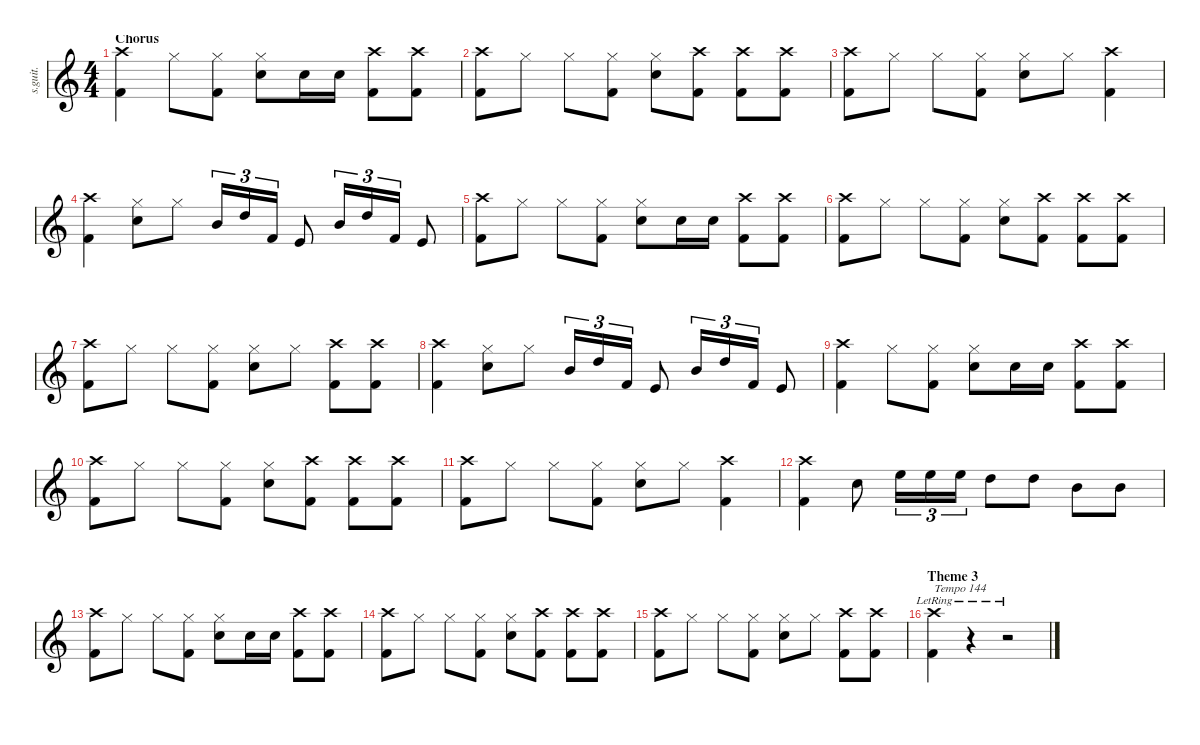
\defaultSystemsLayout 4
\hideDynamics
\bracketExtendMode nobrackets
\track ("Lars Ulrich - Drumzzz" "s.guit.") {instrument percussion}
\staff {score}
\articulation defaults
\ts (4 4)
\section ("" "Chorus")
\tempo (119 hide)
\clef g2
\ks c
("Crash high (hit)" "Kick (hit) 2").4{lyrics (0 "") lyrics (1 "") lyrics (2 "") lyrics (3 "") lyrics (4 "") dy f} "Hi-Hat (closed)".8{lyrics (0 "") lyrics (1 "") lyrics (2 "") lyrics (3 "") lyrics (4 "")} ("Hi-Hat (closed)" "Kick (hit) 2").8{lyrics (0 "") lyrics (1 "") lyrics (2 "") lyrics (3 "") lyrics (4 "")} ("Hi-Hat (closed)" "Snare (hit) 2").8{lyrics (0 "") lyrics (1 "") lyrics (2 "") lyrics (3 "") lyrics (4 "")} "Snare (hit) 2".16{lyrics (0 "") lyrics (1 "") lyrics (2 "") lyrics (3 "") lyrics (4 "")} "Snare (hit) 2".16{lyrics (0 "") lyrics (1 "") lyrics (2 "") lyrics (3 "") lyrics (4 "")} ("Crash high (hit)" "Kick (hit) 2").8{lyrics (0 "") lyrics (1 "") lyrics (2 "") lyrics (3 "") lyrics (4 "")} ("Crash high (hit)" "Kick (hit) 2").8{lyrics (0 "") lyrics (1 "") lyrics (2 "") lyrics (3 "") lyrics (4 "")} |
("Crash high (hit)" "Kick (hit) 2").8{lyrics (0 "") lyrics (1 "") lyrics (2 "") lyrics (3 "") lyrics (4 "")} "Hi-Hat (closed)".8{lyrics (0 "") lyrics (1 "") lyrics (2 "") lyrics (3 "") lyrics (4 "")} "Hi-Hat (closed)".8{lyrics (0 "") lyrics (1 "") lyrics (2 "") lyrics (3 "") lyrics (4 "")} ("Hi-Hat (closed)" "Kick (hit) 2").8{lyrics (0 "") lyrics (1 "") lyrics (2 "") lyrics (3 "") lyrics (4 "")} ("Hi-Hat (closed)" "Snare (hit) 2").8{lyrics (0 "") lyrics (1 "") lyrics (2 "") lyrics (3 "") lyrics (4 "")} ("Crash high (hit)" "Kick (hit) 2").8{lyrics (0 "") lyrics (1 "") lyrics (2 "") lyrics (3 "") lyrics (4 "")} ("Crash high (hit)" "Kick (hit) 2").8{lyrics (0 "") lyrics (1 "") lyrics (2 "") lyrics (3 "") lyrics (4 "")} ("Crash high (hit)" "Kick (hit) 2").8{lyrics (0 "") lyrics (1 "") lyrics (2 "") lyrics (3 "") lyrics (4 "")} |
("Crash high (hit)" "Kick (hit) 2").8{lyrics (0 "") lyrics (1 "") lyrics (2 "") lyrics (3 "") lyrics (4 "")} "Hi-Hat (closed)".8{lyrics (0 "") lyrics (1 "") lyrics (2 "") lyrics (3 "") lyrics (4 "")} "Hi-Hat (closed)".8{lyrics (0 "") lyrics (1 "") lyrics (2 "") lyrics (3 "") lyrics (4 "")} ("Hi-Hat (closed)" "Kick (hit) 2").8{lyrics (0 "") lyrics (1 "") lyrics (2 "") lyrics (3 "") lyrics (4 "")} ("Hi-Hat (closed)" "Snare (hit) 2").8{lyrics (0 "") lyrics (1 "") lyrics (2 "") lyrics (3 "") lyrics (4 "")} "Hi-Hat (closed)".8{lyrics (0 "") lyrics (1 "") lyrics (2 "") lyrics (3 "") lyrics (4 "")} ("Crash high (hit)" "Kick (hit) 2").4{lyrics (0 "") lyrics (1 "") lyrics (2 "") lyrics (3 "") lyrics (4 "")} |
("Crash high (hit)" "Kick (hit) 2").4{lyrics (0 "") lyrics (1 "") lyrics (2 "") lyrics (3 "") lyrics (4 "")} ("Hi-Hat (closed)" "Snare (hit) 2").8{lyrics (0 "") lyrics (1 "") lyrics (2 "") lyrics (3 "") lyrics (4 "")} "Hi-Hat (closed)".8{lyrics (0 "") lyrics (1 "") lyrics (2 "") lyrics (3 "") lyrics (4 "")} "Mid Tom (hit)".16{tu (3 2) lyrics (0 "") lyrics (1 "") lyrics (2 "") lyrics (3 "") lyrics (4 "")} "High Tom (hit)".16{tu (3 2) lyrics (0 "") lyrics (1 "") lyrics (2 "") lyrics (3 "") lyrics (4 "")} "Kick (hit) 2".16{tu (3 2) lyrics (0 "") lyrics (1 "") lyrics (2 "") lyrics (3 "") lyrics (4 "")} "Kick (hit)".8{lyrics (0 "") lyrics (1 "") lyrics (2 "") lyrics (3 "") lyrics (4 "")} "Mid Tom (hit)".16{tu (3 2) lyrics (0 "") lyrics (1 "") lyrics (2 "") lyrics (3 "") lyrics (4 "")} "High Tom (hit)".16{tu (3 2) lyrics (0 "") lyrics (1 "") lyrics (2 "") lyrics (3 "") lyrics (4 "")} "Kick (hit) 2".16{tu (3 2) lyrics (0 "") lyrics (1 "") lyrics (2 "") lyrics (3 "") lyrics (4 "")} "Kick (hit)".8{lyrics (0 "") lyrics (1 "") lyrics (2 "") lyrics (3 "") lyrics (4 "")} |
("Crash high (hit)" "Kick (hit) 2").8{lyrics (0 "") lyrics (1 "") lyrics (2 "") lyrics (3 "") lyrics (4 "")} "Hi-Hat (closed)".8{lyrics (0 "") lyrics (1 "") lyrics (2 "") lyrics (3 "") lyrics (4 "")} "Hi-Hat (closed)".8{lyrics (0 "") lyrics (1 "") lyrics (2 "") lyrics (3 "") lyrics (4 "")} ("Hi-Hat (closed)" "Kick (hit) 2").8{lyrics (0 "") lyrics (1 "") lyrics (2 "") lyrics (3 "") lyrics (4 "")} ("Hi-Hat (closed)" "Snare (hit) 2").8{lyrics (0 "") lyrics (1 "") lyrics (2 "") lyrics (3 "") lyrics (4 "")} "Snare (hit) 2".16{lyrics (0 "") lyrics (1 "") lyrics (2 "") lyrics (3 "") lyrics (4 "")} "Snare (hit) 2".16{lyrics (0 "") lyrics (1 "") lyrics (2 "") lyrics (3 "") lyrics (4 "")} ("Crash high (hit)" "Kick (hit) 2").8{lyrics (0 "") lyrics (1 "") lyrics (2 "") lyrics (3 "") lyrics (4 "")} ("Crash high (hit)" "Kick (hit) 2").8{lyrics (0 "") lyrics (1 "") lyrics (2 "") lyrics (3 "") lyrics (4 "")} |
("Crash high (hit)" "Kick (hit) 2").8{lyrics (0 "") lyrics (1 "") lyrics (2 "") lyrics (3 "") lyrics (4 "")} "Hi-Hat (closed)".8{lyrics (0 "") lyrics (1 "") lyrics (2 "") lyrics (3 "") lyrics (4 "")} "Hi-Hat (closed)".8{lyrics (0 "") lyrics (1 "") lyrics (2 "") lyrics (3 "") lyrics (4 "")} ("Hi-Hat (closed)" "Kick (hit) 2").8{lyrics (0 "") lyrics (1 "") lyrics (2 "") lyrics (3 "") lyrics (4 "")} ("Hi-Hat (closed)" "Snare (hit) 2").8{lyrics (0 "") lyrics (1 "") lyrics (2 "") lyrics (3 "") lyrics (4 "")} ("Crash high (hit)" "Kick (hit) 2").8{lyrics (0 "") lyrics (1 "") lyrics (2 "") lyrics (3 "") lyrics (4 "")} ("Crash high (hit)" "Kick (hit) 2").8{lyrics (0 "") lyrics (1 "") lyrics (2 "") lyrics (3 "") lyrics (4 "")} ("Crash high (hit)" "Kick (hit) 2").8{lyrics (0 "") lyrics (1 "") lyrics (2 "") lyrics (3 "") lyrics (4 "")} |
("Crash high (hit)" "Kick (hit) 2").8{lyrics (0 "") lyrics (1 "") lyrics (2 "") lyrics (3 "") lyrics (4 "")} "Hi-Hat (closed)".8{lyrics (0 "") lyrics (1 "") lyrics (2 "") lyrics (3 "") lyrics (4 "")} "Hi-Hat (closed)".8{lyrics (0 "") lyrics (1 "") lyrics (2 "") lyrics (3 "") lyrics (4 "")} ("Hi-Hat (closed)" "Kick (hit) 2").8{lyrics (0 "") lyrics (1 "") lyrics (2 "") lyrics (3 "") lyrics (4 "")} ("Hi-Hat (closed)" "Snare (hit) 2").8{lyrics (0 "") lyrics (1 "") lyrics (2 "") lyrics (3 "") lyrics (4 "")} "Hi-Hat (closed)".8{lyrics (0 "") lyrics (1 "") lyrics (2 "") lyrics (3 "") lyrics (4 "")} ("Crash high (hit)" "Kick (hit) 2").8{lyrics (0 "") lyrics (1 "") lyrics (2 "") lyrics (3 "") lyrics (4 "")} ("Crash high (hit)" "Kick (hit) 2").8{lyrics (0 "") lyrics (1 "") lyrics (2 "") lyrics (3 "") lyrics (4 "")} |
("Crash high (hit)" "Kick (hit) 2").4{lyrics (0 "") lyrics (1 "") lyrics (2 "") lyrics (3 "") lyrics (4 "")} ("Hi-Hat (closed)" "Snare (hit) 2").8{lyrics (0 "") lyrics (1 "") lyrics (2 "") lyrics (3 "") lyrics (4 "")} "Hi-Hat (closed)".8{lyrics (0 "") lyrics (1 "") lyrics (2 "") lyrics (3 "") lyrics (4 "")} "Mid Tom (hit)".16{tu (3 2) lyrics (0 "") lyrics (1 "") lyrics (2 "") lyrics (3 "") lyrics (4 "")} "High Tom (hit)".16{tu (3 2) lyrics (0 "") lyrics (1 "") lyrics (2 "") lyrics (3 "") lyrics (4 "")} "Kick (hit) 2".16{tu (3 2) lyrics (0 "") lyrics (1 "") lyrics (2 "") lyrics (3 "") lyrics (4 "")} "Kick (hit)".8{lyrics (0 "") lyrics (1 "") lyrics (2 "") lyrics (3 "") lyrics (4 "")} "Mid Tom (hit)".16{tu (3 2) lyrics (0 "") lyrics (1 "") lyrics (2 "") lyrics (3 "") lyrics (4 "")} "High Tom (hit)".16{tu (3 2) lyrics (0 "") lyrics (1 "") lyrics (2 "") lyrics (3 "") lyrics (4 "")} "Kick (hit) 2".16{tu (3 2) lyrics (0 "") lyrics (1 "") lyrics (2 "") lyrics (3 "") lyrics (4 "")} "Kick (hit)".8{lyrics (0 "") lyrics (1 "") lyrics (2 "") lyrics (3 "") lyrics (4 "")} |
("Crash high (hit)" "Kick (hit) 2").4{lyrics (0 "") lyrics (1 "") lyrics (2 "") lyrics (3 "") lyrics (4 "")} "Hi-Hat (closed)".8{lyrics (0 "") lyrics (1 "") lyrics (2 "") lyrics (3 "") lyrics (4 "")} ("Hi-Hat (closed)" "Kick (hit) 2").8{lyrics (0 "") lyrics (1 "") lyrics (2 "") lyrics (3 "") lyrics (4 "")} ("Hi-Hat (closed)" "Snare (hit) 2").8{lyrics (0 "") lyrics (1 "") lyrics (2 "") lyrics (3 "") lyrics (4 "")} "Snare (hit) 2".16{lyrics (0 "") lyrics (1 "") lyrics (2 "") lyrics (3 "") lyrics (4 "")} "Snare (hit) 2".16{lyrics (0 "") lyrics (1 "") lyrics (2 "") lyrics (3 "") lyrics (4 "")} ("Crash high (hit)" "Kick (hit) 2").8{lyrics (0 "") lyrics (1 "") lyrics (2 "") lyrics (3 "") lyrics (4 "")} ("Crash high (hit)" "Kick (hit) 2").8{lyrics (0 "") lyrics (1 "") lyrics (2 "") lyrics (3 "") lyrics (4 "")} |
("Crash high (hit)" "Kick (hit) 2").8{lyrics (0 "") lyrics (1 "") lyrics (2 "") lyrics (3 "") lyrics (4 "")} "Hi-Hat (closed)".8{lyrics (0 "") lyrics (1 "") lyrics (2 "") lyrics (3 "") lyrics (4 "")} "Hi-Hat (closed)".8{lyrics (0 "") lyrics (1 "") lyrics (2 "") lyrics (3 "") lyrics (4 "")} ("Hi-Hat (closed)" "Kick (hit) 2").8{lyrics (0 "") lyrics (1 "") lyrics (2 "") lyrics (3 "") lyrics (4 "")} ("Hi-Hat (closed)" "Snare (hit) 2").8{lyrics (0 "") lyrics (1 "") lyrics (2 "") lyrics (3 "") lyrics (4 "")} ("Crash high (hit)" "Kick (hit) 2").8{lyrics (0 "") lyrics (1 "") lyrics (2 "") lyrics (3 "") lyrics (4 "")} ("Crash high (hit)" "Kick (hit) 2").8{lyrics (0 "") lyrics (1 "") lyrics (2 "") lyrics (3 "") lyrics (4 "")} ("Crash high (hit)" "Kick (hit) 2").8{lyrics (0 "") lyrics (1 "") lyrics (2 "") lyrics (3 "") lyrics (4 "")} |
("Crash high (hit)" "Kick (hit) 2").8{lyrics (0 "") lyrics (1 "") lyrics (2 "") lyrics (3 "") lyrics (4 "")} "Hi-Hat (closed)".8{lyrics (0 "") lyrics (1 "") lyrics (2 "") lyrics (3 "") lyrics (4 "")} "Hi-Hat (closed)".8{lyrics (0 "") lyrics (1 "") lyrics (2 "") lyrics (3 "") lyrics (4 "")} ("Hi-Hat (closed)" "Kick (hit) 2").8{lyrics (0 "") lyrics (1 "") lyrics (2 "") lyrics (3 "") lyrics (4 "")} ("Hi-Hat (closed)" "Snare (hit) 2").8{lyrics (0 "") lyrics (1 "") lyrics (2 "") lyrics (3 "") lyrics (4 "")} "Hi-Hat (closed)".8{lyrics (0 "") lyrics (1 "") lyrics (2 "") lyrics (3 "") lyrics (4 "")} ("Crash high (hit)" "Kick (hit) 2").4{lyrics (0 "") lyrics (1 "") lyrics (2 "") lyrics (3 "") lyrics (4 "")} |
("Crash high (hit)" "Kick (hit) 2").4{lyrics (0 "") lyrics (1 "") lyrics (2 "") lyrics (3 "") lyrics (4 "")} "Snare (hit) 2".8{lyrics (0 "") lyrics (1 "") lyrics (2 "") lyrics (3 "") lyrics (4 "")} "High Floor Tom (hit)".16{tu (3 2) lyrics (0 "") lyrics (1 "") lyrics (2 "") lyrics (3 "") lyrics (4 "")} "High Floor Tom (hit)".16{tu (3 2) lyrics (0 "") lyrics (1 "") lyrics (2 "") lyrics (3 "") lyrics (4 "")} "High Floor Tom (hit)".16{tu (3 2) lyrics (0 "") lyrics (1 "") lyrics (2 "") lyrics (3 "") lyrics (4 "")} "High Tom (hit)".8{lyrics (0 "") lyrics (1 "") lyrics (2 "") lyrics (3 "") lyrics (4 "")} "High Tom (hit)".8{lyrics (0 "") lyrics (1 "") lyrics (2 "") lyrics (3 "") lyrics (4 "")} "Mid Tom (hit)".8{lyrics (0 "") lyrics (1 "") lyrics (2 "") lyrics (3 "") lyrics (4 "")} "Mid Tom (hit)".8{lyrics (0 "") lyrics (1 "") lyrics (2 "") lyrics (3 "") lyrics (4 "")} |
("Crash high (hit)" "Kick (hit) 2").8{lyrics (0 "") lyrics (1 "") lyrics (2 "") lyrics (3 "") lyrics (4 "")} "Hi-Hat (closed)".8{lyrics (0 "") lyrics (1 "") lyrics (2 "") lyrics (3 "") lyrics (4 "")} "Hi-Hat (closed)".8{lyrics (0 "") lyrics (1 "") lyrics (2 "") lyrics (3 "") lyrics (4 "")} ("Hi-Hat (closed)" "Kick (hit) 2").8{lyrics (0 "") lyrics (1 "") lyrics (2 "") lyrics (3 "") lyrics (4 "")} ("Hi-Hat (closed)" "Snare (hit) 2").8{lyrics (0 "") lyrics (1 "") lyrics (2 "") lyrics (3 "") lyrics (4 "")} "Snare (hit) 2".16{lyrics (0 "") lyrics (1 "") lyrics (2 "") lyrics (3 "") lyrics (4 "")} "Snare (hit) 2".16{lyrics (0 "") lyrics (1 "") lyrics (2 "") lyrics (3 "") lyrics (4 "")} ("Crash high (hit)" "Kick (hit) 2").8{lyrics (0 "") lyrics (1 "") lyrics (2 "") lyrics (3 "") lyrics (4 "")} ("Crash high (hit)" "Kick (hit) 2").8{lyrics (0 "") lyrics (1 "") lyrics (2 "") lyrics (3 "") lyrics (4 "")} |
("Crash high (hit)" "Kick (hit) 2").8{lyrics (0 "") lyrics (1 "") lyrics (2 "") lyrics (3 "") lyrics (4 "")} "Hi-Hat (closed)".8{lyrics (0 "") lyrics (1 "") lyrics (2 "") lyrics (3 "") lyrics (4 "")} "Hi-Hat (closed)".8{lyrics (0 "") lyrics (1 "") lyrics (2 "") lyrics (3 "") lyrics (4 "")} ("Hi-Hat (closed)" "Kick (hit) 2").8{lyrics (0 "") lyrics (1 "") lyrics (2 "") lyrics (3 "") lyrics (4 "")} ("Hi-Hat (closed)" "Snare (hit) 2").8{lyrics (0 "") lyrics (1 "") lyrics (2 "") lyrics (3 "") lyrics (4 "")} ("Crash high (hit)" "Kick (hit) 2").8{lyrics (0 "") lyrics (1 "") lyrics (2 "") lyrics (3 "") lyrics (4 "")} ("Crash high (hit)" "Kick (hit) 2").8{lyrics (0 "") lyrics (1 "") lyrics (2 "") lyrics (3 "") lyrics (4 "")} ("Crash high (hit)" "Kick (hit) 2").8{lyrics (0 "") lyrics (1 "") lyrics (2 "") lyrics (3 "") lyrics (4 "")} |
("Crash high (hit)" "Kick (hit) 2").8{lyrics (0 "") lyrics (1 "") lyrics (2 "") lyrics (3 "") lyrics (4 "")} "Hi-Hat (closed)".8{lyrics (0 "") lyrics (1 "") lyrics (2 "") lyrics (3 "") lyrics (4 "")} "Hi-Hat (closed)".8{lyrics (0 "") lyrics (1 "") lyrics (2 "") lyrics (3 "") lyrics (4 "")} ("Hi-Hat (closed)" "Kick (hit) 2").8{lyrics (0 "") lyrics (1 "") lyrics (2 "") lyrics (3 "") lyrics (4 "")} ("Hi-Hat (closed)" "Snare (hit) 2").8{lyrics (0 "") lyrics (1 "") lyrics (2 "") lyrics (3 "") lyrics (4 "")} "Hi-Hat (closed)".8{lyrics (0 "") lyrics (1 "") lyrics (2 "") lyrics (3 "") lyrics (4 "")} ("Crash high (hit)" "Kick (hit) 2").8{lyrics (0 "") lyrics (1 "") lyrics (2 "") lyrics (3 "") lyrics (4 "")} ("Crash high (hit)" "Kick (hit) 2").8{lyrics (0 "") lyrics (1 "") lyrics (2 "") lyrics (3 "") lyrics (4 "")} |
\section ("" "Theme 3")
\tempo (142 hide)
("Crash high (hit)"{lr} "Kick (hit) 2"{lr}).4{txt "Tempo 144" lyrics (0 "") lyrics (1 "") lyrics (2 "") lyrics (3 "") lyrics (4 "")} r.4 r.2
